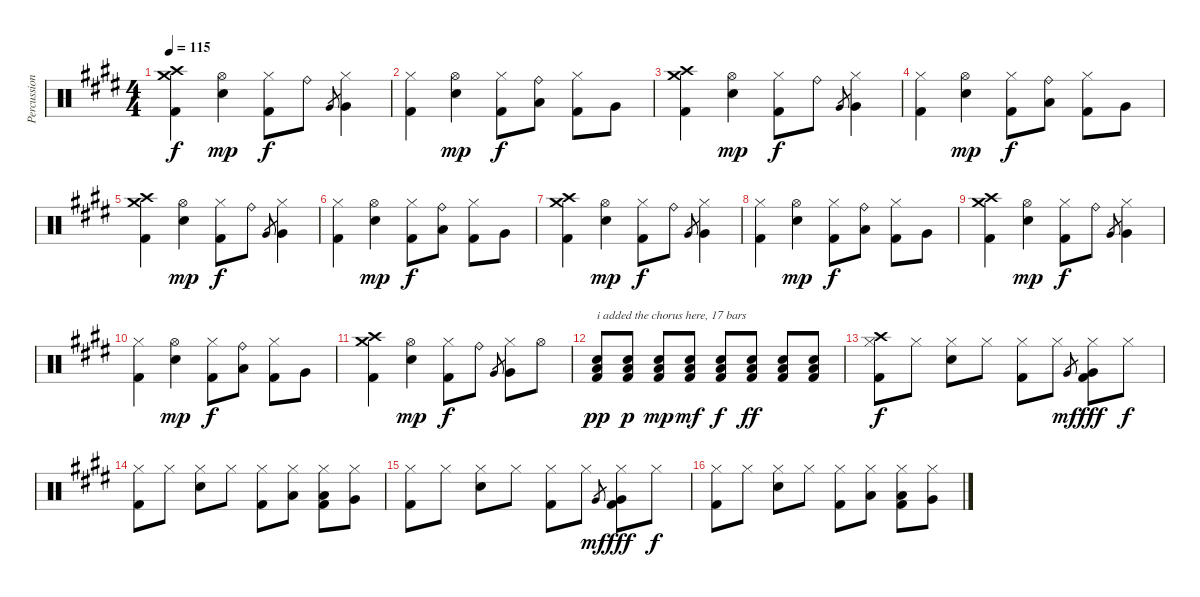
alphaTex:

\track ("Percussion" "Percussion") {instrument percussion}
\staff {score}
\articulation defaults
\ts (4 4)
\tempo 115
\clef neutral
\ks c#minor
("Crash high (hit)" "Crash medium (hit)" "Kick (hit) 2").4{dy f} ("Hi-Hat (open)" "Electric Snare (hit)").4{dy mp} ("Hi-Hat (closed)" "Kick (hit) 2").8{dy f} "Ride (bell)".8 "Very Low Tom (hit)".8{gr} ("Hi-Hat (closed)" "Very Low Tom (hit)").4 |
("Hi-Hat (closed)" "Kick (hit) 2").4 ("Hi-Hat (open)" "Electric Snare (hit)").4{dy mp} ("Hi-Hat (closed)" "Kick (hit) 2").8{dy f} ("Ride (bell)" "Low Tom (hit)").8 ("Hi-Hat (closed)" "Kick (hit) 2").8 "Very Low Tom (hit)".8 |
("Crash high (hit)" "Crash medium (hit)" "Kick (hit) 2").4 ("Hi-Hat (open)" "Electric Snare (hit)").4{dy mp} ("Hi-Hat (closed)" "Kick (hit) 2").8{dy f} "Ride (bell)".8 "Very Low Tom (hit)".8{gr} ("Hi-Hat (closed)" "Very Low Tom (hit)").4 |
("Hi-Hat (closed)" "Kick (hit) 2").4 ("Hi-Hat (open)" "Electric Snare (hit)").4{dy mp} ("Hi-Hat (closed)" "Kick (hit) 2").8{dy f} ("Ride (bell)" "Low Tom (hit)").8 ("Hi-Hat (closed)" "Kick (hit) 2").8 "Very Low Tom (hit)".8 |
("Crash high (hit)" "Crash medium (hit)" "Kick (hit) 2").4 ("Hi-Hat (open)" "Electric Snare (hit)").4{dy mp} ("Hi-Hat (closed)" "Kick (hit) 2").8{dy f} "Ride (bell)".8 "Very Low Tom (hit)".8{gr} ("Hi-Hat (closed)" "Very Low Tom (hit)").4 |
("Hi-Hat (closed)" "Kick (hit) 2").4 ("Hi-Hat (open)" "Electric Snare (hit)").4{dy mp} ("Hi-Hat (closed)" "Kick (hit) 2").8{dy f} ("Ride (bell)" "Low Tom (hit)").8 ("Hi-Hat (closed)" "Kick (hit) 2").8 "Very Low Tom (hit)".8 |
("Crash high (hit)" "Crash medium (hit)" "Kick (hit) 2").4 ("Hi-Hat (open)" "Electric Snare (hit)").4{dy mp} ("Hi-Hat (closed)" "Kick (hit) 2").8{dy f} "Ride (bell)".8 "Very Low Tom (hit)".8{gr} ("Hi-Hat (closed)" "Very Low Tom (hit)").4 |
("Hi-Hat (closed)" "Kick (hit) 2").4 ("Hi-Hat (open)" "Electric Snare (hit)").4{dy mp} ("Hi-Hat (closed)" "Kick (hit) 2").8{dy f} ("Ride (bell)" "Low Tom (hit)").8 ("Hi-Hat (closed)" "Kick (hit) 2").8 "Very Low Tom (hit)".8 |
("Crash high (hit)" "Crash medium (hit)" "Kick (hit) 2").4 ("Hi-Hat (open)" "Electric Snare (hit)").4{dy mp} ("Hi-Hat (closed)" "Kick (hit) 2").8{dy f} "Ride (bell)".8 "Very Low Tom (hit)".8{gr} ("Hi-Hat (closed)" "Very Low Tom (hit)").4 |
("Hi-Hat (closed)" "Kick (hit) 2").4 ("Hi-Hat (open)" "Electric Snare (hit)").4{dy mp} ("Hi-Hat (closed)" "Kick (hit) 2").8{dy f} ("Ride (bell)" "Low Tom (hit)").8 ("Hi-Hat (closed)" "Kick (hit) 2").8 "Very Low Tom (hit)".8 |
("Crash high (hit)" "Crash medium (hit)" "Kick (hit) 2").4 ("Hi-Hat (open)" "Electric Snare (hit)").4{dy mp} ("Hi-Hat (closed)" "Kick (hit) 2").8{dy f} "Ride (bell)".8 "Very Low Tom (hit)".8{gr} ("Hi-Hat (closed)" "Very Low Tom (hit)").8 "Hi-Hat (open)".8 |
("Low Floor Tom (hit)" "Electric Snare (hit)" "Kick (hit) 2").8{txt "i added the chorus here, 17 bars" dy pp} ("Low Floor Tom (hit)" "Electric Snare (hit)" "Kick (hit) 2").8{dy p} ("Low Floor Tom (hit)" "Electric Snare (hit)" "Kick (hit) 2").8{dy mp} ("Low Floor Tom (hit)" "Electric Snare (hit)" "Kick (hit) 2").8{dy mf} ("Low Floor Tom (hit)" "Electric Snare (hit)" "Kick (hit) 2").8{dy f} ("Low Floor Tom (hit)" "Electric Snare (hit)" "Kick (hit) 2").8{dy ff} ("Low Floor Tom (hit)" "Electric Snare (hit)" "Kick (hit) 2").8 ("Low Floor Tom (hit)" "Electric Snare (hit)" "Kick (hit) 2").8 |
("Crash high (hit)" "Hi-Hat (closed)" "Kick (hit) 2").8{dy f} "Hi-Hat (closed)".8 ("Hi-Hat (closed)" "Electric Snare (hit)").8 "Hi-Hat (closed)".8 ("Hi-Hat (closed)" "Kick (hit) 2").8 "Hi-Hat (closed)".8 "Very Low Tom (hit)".8{gr dy mf} ("Hi-Hat (closed)" "Very Low Tom (hit)" "Kick (hit) 2").8{dy fff} "Hi-Hat (closed)".8{dy f} |
("Hi-Hat (closed)" "Kick (hit) 2").8 "Hi-Hat (closed)".8 ("Hi-Hat (closed)" "Electric Snare (hit)").8 "Hi-Hat (closed)".8 ("Hi-Hat (closed)" "Kick (hit) 2").8 ("Hi-Hat (closed)" "Low Tom (hit)").8 ("Hi-Hat (closed)" "Low Floor Tom (hit)" "Kick (hit) 2").8 ("Hi-Hat (closed)" "Very Low Tom (hit)").8 |
("Hi-Hat (closed)" "Kick (hit) 2").8 "Hi-Hat (closed)".8 ("Hi-Hat (closed)" "Electric Snare (hit)").8 "Hi-Hat (closed)".8 ("Hi-Hat (closed)" "Kick (hit) 2").8 "Hi-Hat (closed)".8 "Very Low Tom (hit)".8{gr dy mf} ("Hi-Hat (closed)" "Very Low Tom (hit)" "Kick (hit) 2").8{dy fff} "Hi-Hat (closed)".8{dy f} |
("Hi-Hat (closed)" "Kick (hit) 2").8 "Hi-Hat (closed)".8 ("Hi-Hat (closed)" "Electric Snare (hit)").8 "Hi-Hat (closed)".8 ("Hi-Hat (closed)" "Kick (hit) 2").8 ("Hi-Hat (closed)" "Low Tom (hit)").8 ("Hi-Hat (closed)" "Low Floor Tom (hit)" "Kick (hit) 2").8 ("Hi-Hat (closed)" "Very Low Tom (hit)").8
